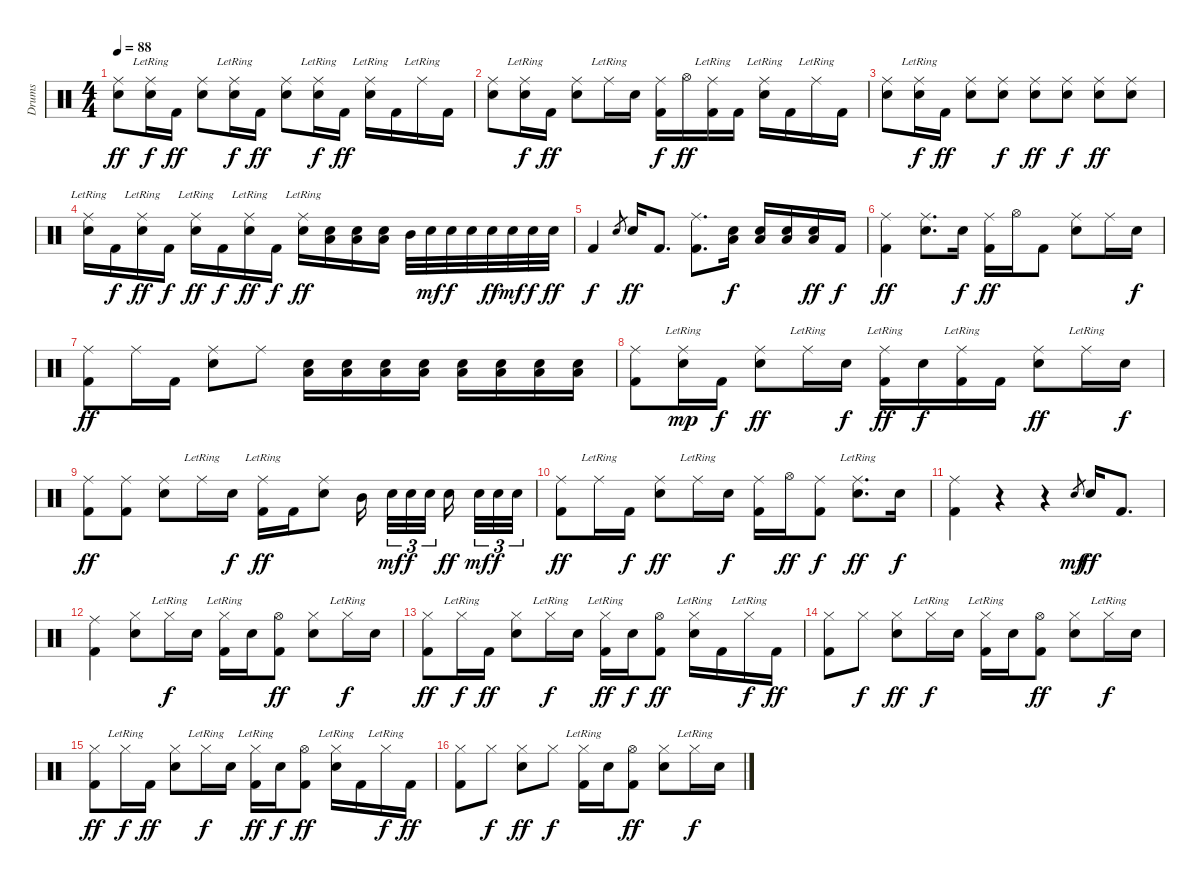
\track ("Drums" "Drums") {instrument percussion}
\staff {score}
\articulation defaults
\ts (4 4)
\tempo 88
\clef neutral
\ks c
("Ride (middle)" "Electric Snare (hit)").8{dy ff} ("Ride (middle)"{lr} "Electric Snare (hit)").16{dy f} "Kick (hit) 2".16{dy ff} ("Ride (middle)" "Electric Snare (hit)").8 ("Ride (middle)"{lr} "Electric Snare (hit)").16{dy f} "Kick (hit) 2".16{dy ff} ("Ride (middle)" "Electric Snare (hit)").8 ("Ride (middle)"{lr} "Electric Snare (hit)").16{dy f} "Kick (hit) 2".16{dy ff} ("Ride (middle)"{lr} "Electric Snare (hit)").16 "Kick (hit) 2".16 "Ride (middle)"{lr}.16 "Kick (hit) 2".16 |
("Ride (middle)" "Electric Snare (hit)").8 ("Ride (middle)"{lr} "Electric Snare (hit)").16{dy f} "Kick (hit) 2".16{dy ff} ("Ride (middle)" "Electric Snare (hit)").8 "Ride (middle)"{lr}.16 "Electric Snare (hit)".16 ("Ride (middle)" "Kick (hit) 2").16{dy f} "Hi-Hat (open)".16{dy ff} ("Ride (middle)"{lr} "Kick (hit) 2").16 "Kick (hit) 2".16 ("Ride (middle)"{lr} "Electric Snare (hit)").16 "Kick (hit) 2".16 "Ride (middle)"{lr}.16 "Kick (hit) 2".16 |
("Ride (middle)" "Electric Snare (hit)").8 ("Ride (middle)"{lr} "Electric Snare (hit)").16{dy f} "Kick (hit) 2".16{dy ff} ("Ride (middle)" "Electric Snare (hit)").8 ("Ride (middle)" "Electric Snare (hit)").8{dy f} ("Ride (middle)" "Electric Snare (hit)").8{dy ff} ("Ride (middle)" "Electric Snare (hit)").8{dy f} ("Ride (middle)" "Electric Snare (hit)").8{dy ff} ("Ride (middle)" "Electric Snare (hit)").8 |
("Ride (middle)"{lr} "Electric Snare (hit)").16 "Kick (hit) 2".16{dy f} ("Ride (middle)"{lr} "Electric Snare (hit)").16{dy ff} "Kick (hit) 2".16{dy f} ("Ride (middle)"{lr} "Electric Snare (hit)").16{dy ff} "Kick (hit) 2".16{dy f} ("Ride (middle)"{lr} "Electric Snare (hit)").16{dy ff} "Kick (hit) 2".16{dy f} ("Ride (middle)"{lr} "Electric Snare (hit)").16{dy ff} ("Electric Snare (hit)" "Low Tom (hit)").16 ("Electric Snare (hit)" "Low Tom (hit)").16 ("Electric Snare (hit)" "Low Tom (hit)").16 "Mid Tom (hit)".32 "Electric Snare (hit)".32{dy mf} "Electric Snare (hit)".32{dy f} "Electric Snare (hit)".32 "Electric Snare (hit)".32{dy ff} "Electric Snare (hit)".32{dy mf} "Electric Snare (hit)".32{dy f} "Electric Snare (hit)".32{dy ff} |
"Kick (hit) 2".4{dy f} "Electric Snare (hit)".8{gr} "Electric Snare (hit)".16{dy ff} "Kick (hit) 2".8{d} ("Ride (middle)" "Kick (hit) 2").8{d} ("Electric Snare (hit)" "Low Tom (hit)").16{dy f} ("Electric Snare (hit)" "Low Tom (hit)").16 ("Electric Snare (hit)" "Low Tom (hit)").16 ("Electric Snare (hit)" "Low Tom (hit)").16{dy ff} "Kick (hit) 2".16{dy f} |
("Ride (middle)" "Kick (hit) 2").4{dy ff} ("Ride (middle)" "Electric Snare (hit)").8{d} "Electric Snare (hit)".16{dy f} ("Ride (middle)" "Kick (hit) 2").16{dy ff} "Hi-Hat (open)".16 "Kick (hit) 2".8 ("Ride (middle)" "Electric Snare (hit)").8 "Ride (middle)".16 "Electric Snare (hit)".16{dy f} |
("Ride (middle)" "Kick (hit) 2").8{dy ff} "Ride (middle)".16 "Kick (hit) 2".16 ("Ride (middle)" "Electric Snare (hit)").8 "Ride (middle)".8 ("Electric Snare (hit)" "Low Tom (hit)").16 ("Electric Snare (hit)" "Low Tom (hit)").16 ("Electric Snare (hit)" "Low Tom (hit)").16 ("Electric Snare (hit)" "Low Tom (hit)").16 ("Electric Snare (hit)" "Low Tom (hit)").16 ("Electric Snare (hit)" "Low Tom (hit)").16 ("Electric Snare (hit)" "Low Tom (hit)").16 ("Electric Snare (hit)" "Low Tom (hit)").16 |
("Ride (middle)" "Kick (hit) 2").8 ("Ride (middle)"{lr} "Electric Snare (hit)").16{dy mp} "Kick (hit) 2".16{dy f} ("Ride (middle)" "Electric Snare (hit)").8{dy ff} "Ride (middle)"{lr}.16 "Electric Snare (hit)".16{dy f} ("Ride (middle)"{lr} "Kick (hit) 2").16{dy ff} "Electric Snare (hit)".16{dy f} ("Ride (middle)"{lr} "Kick (hit) 2").16 "Kick (hit) 2".16 ("Ride (middle)" "Electric Snare (hit)").8{dy ff} "Ride (middle)"{lr}.16 "Electric Snare (hit)".16{dy f} |
("Ride (middle)" "Kick (hit) 2").8{dy ff} ("Ride (middle)" "Kick (hit) 2").8 ("Ride (middle)" "Electric Snare (hit)").8 "Ride (middle)"{lr}.16 "Electric Snare (hit)".16{dy f} ("Ride (middle)"{lr} "Kick (hit) 2").16{dy ff} "Kick (hit) 2".16 ("Ride (middle)" "Electric Snare (hit)").8 "Mid Tom (hit)".16 "Electric Snare (hit)".32{tu (3 2) dy mf} "Electric Snare (hit)".32{tu (3 2) dy f} "Electric Snare (hit)".32{tu (3 2)} "Electric Snare (hit)".16{dy ff} "Electric Snare (hit)".32{tu (3 2) dy mf} "Electric Snare (hit)".32{tu (3 2) dy f} "Electric Snare (hit)".32{tu (3 2)} |
("Ride (middle)" "Kick (hit) 2").8{dy ff} "Ride (middle)"{lr}.16 "Kick (hit) 2".16{dy f} ("Ride (middle)" "Electric Snare (hit)").8{dy ff} "Ride (middle)"{lr}.16 "Electric Snare (hit)".16{dy f} ("Ride (middle)" "Kick (hit) 2").16 "Hi-Hat (open)".16{dy ff} ("Ride (middle)" "Kick (hit) 2").8{dy f} ("Ride (middle)"{lr} "Electric Snare (hit)").8{d dy ff} "Electric Snare (hit)".16{dy f} |
("Ride (middle)" "Kick (hit) 2").4 r.4 r.4 "Electric Snare (hit)".8{gr dy mf} "Electric Snare (hit)".16{dy ff} "Kick (hit) 2".8{d} |
("Ride (middle)" "Kick (hit) 2").4 ("Hi-Hat (closed)" "Electric Snare (hit)").8 "Hi-Hat (closed)"{lr}.16{dy f} "Electric Snare (hit)".16 ("Hi-Hat (closed)"{lr} "Kick (hit) 2").16 "Electric Snare (hit)".16 ("Hi-Hat (open)" "Kick (hit) 2").8{dy ff} ("Hi-Hat (closed)" "Electric Snare (hit)").8 "Hi-Hat (closed)"{lr}.16{dy f} "Electric Snare (hit)".16 |
("Hi-Hat (closed)" "Kick (hit) 2").8{dy ff} "Hi-Hat (closed)"{lr}.16{dy f} "Kick (hit) 2".16{dy ff} ("Hi-Hat (closed)" "Electric Snare (hit)").8 "Hi-Hat (closed)"{lr}.16{dy f} "Electric Snare (hit)".16 ("Hi-Hat (closed)"{lr} "Kick (hit) 2").16{dy ff} "Electric Snare (hit)".16{dy f} ("Hi-Hat (open)" "Kick (hit) 2").8{dy ff} ("Hi-Hat (closed)"{lr} "Electric Snare (hit)").16 "Kick (hit) 2".16 "Hi-Hat (closed)"{lr}.16{dy f} "Kick (hit) 2".16{dy ff} |
("Hi-Hat (closed)" "Kick (hit) 2").8 "Hi-Hat (closed)".8{dy f} ("Hi-Hat (closed)" "Electric Snare (hit)").8{dy ff} "Hi-Hat (closed)"{lr}.16{dy f} "Electric Snare (hit)".16 ("Hi-Hat (closed)"{lr} "Kick (hit) 2").16 "Electric Snare (hit)".16 ("Hi-Hat (open)" "Kick (hit) 2").8{dy ff} ("Hi-Hat (closed)" "Electric Snare (hit)").8 "Hi-Hat (closed)"{lr}.16{dy f} "Electric Snare (hit)".16 |
("Hi-Hat (closed)" "Kick (hit) 2").8{dy ff} "Hi-Hat (closed)"{lr}.16{dy f} "Kick (hit) 2".16{dy ff} ("Hi-Hat (closed)" "Electric Snare (hit)").8 "Hi-Hat (closed)"{lr}.16{dy f} "Electric Snare (hit)".16 ("Hi-Hat (closed)"{lr} "Kick (hit) 2").16{dy ff} "Electric Snare (hit)".16{dy f} ("Hi-Hat (open)" "Kick (hit) 2").8{dy ff} ("Hi-Hat (closed)"{lr} "Electric Snare (hit)").16 "Kick (hit) 2".16 "Hi-Hat (closed)"{lr}.16{dy f} "Kick (hit) 2".16{dy ff} |
("Hi-Hat (closed)" "Kick (hit) 2").8 "Hi-Hat (closed)".8{dy f} ("Hi-Hat (closed)" "Electric Snare (hit)").8{dy ff} "Hi-Hat (closed)".8{dy f} ("Hi-Hat (closed)"{lr} "Kick (hit) 2").16 "Electric Snare (hit)".16 ("Hi-Hat (open)" "Kick (hit) 2").8{dy ff} ("Hi-Hat (closed)" "Electric Snare (hit)").8 "Hi-Hat (closed)"{lr}.16{dy f} "Electric Snare (hit)".16
